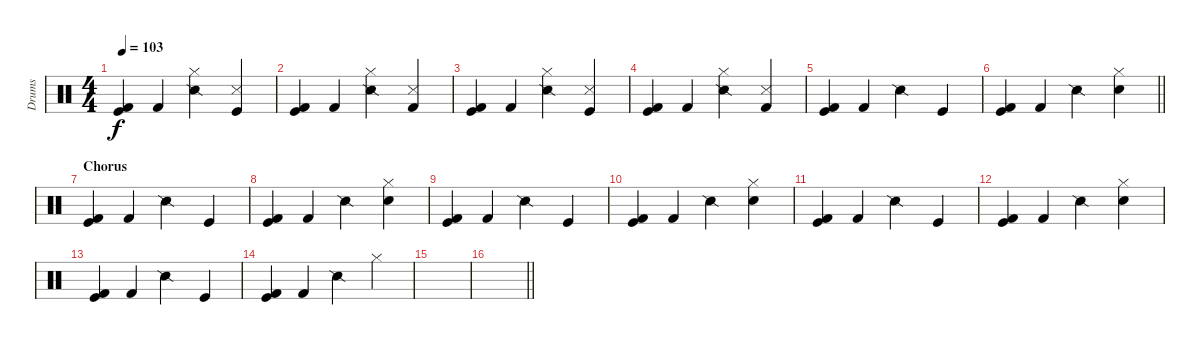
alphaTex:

\track ("Drums" "Drums") {instrument percussion}
\staff {score}
\articulation defaults
\ts (4 4)
\tempo 103
\clef neutral
\ks c
("Kick (hit)" "Kick (hit) 2").4{dy f} "Kick (hit) 2".4 ("Snare (side stick) 2" "Hi-Hat (closed)").4 ("Snare (side stick) 3" "Kick (hit)").4 |
("Kick (hit)" "Kick (hit) 2").4 "Kick (hit) 2".4 ("Snare (side stick) 2" "Hi-Hat (closed)").4 ("Snare (side stick) 3" "Kick (hit) 2").4 |
("Kick (hit)" "Kick (hit) 2").4 "Kick (hit) 2".4 ("Snare (side stick) 2" "Hi-Hat (closed)").4 ("Snare (side stick) 3" "Kick (hit)").4 |
("Kick (hit)" "Kick (hit) 2").4 "Kick (hit) 2".4 ("Snare (side stick) 2" "Hi-Hat (closed)").4 ("Snare (side stick) 3" "Kick (hit) 2").4 |
("Kick (hit)" "Kick (hit) 2").4 "Kick (hit) 2".4 "Snare (side stick) 2".4 "Kick (hit)".4 |
\barLineRight lightlight
("Kick (hit)" "Kick (hit) 2").4 "Kick (hit) 2".4 "Snare (side stick) 2".4 ("Hi-Hat (closed)" "Metronome (bell)").4 |
\section ("" "Chorus")
("Kick (hit)" "Kick (hit) 2").4 "Kick (hit) 2".4 "Snare (side stick) 2".4 "Kick (hit)".4 |
("Kick (hit)" "Kick (hit) 2").4 "Kick (hit) 2".4 "Snare (side stick) 2".4 ("Hi-Hat (closed)" "Metronome (bell)").4 |
("Kick (hit)" "Kick (hit) 2").4 "Kick (hit) 2".4 "Snare (side stick) 2".4 "Kick (hit)".4 |
("Kick (hit)" "Kick (hit) 2").4 "Kick (hit) 2".4 "Snare (side stick) 2".4 ("Hi-Hat (closed)" "Metronome (bell)").4 |
("Kick (hit)" "Kick (hit) 2").4 "Kick (hit) 2".4 "Snare (side stick) 2".4 "Kick (hit)".4 |
("Kick (hit)" "Kick (hit) 2").4 "Kick (hit) 2".4 "Snare (side stick) 2".4 ("Hi-Hat (closed)" "Metronome (bell)").4 |
("Kick (hit)" "Kick (hit) 2").4 "Kick (hit) 2".4 "Snare (side stick) 2".4 "Kick (hit)".4 |
("Kick (hit)" "Kick (hit) 2").4 "Kick (hit) 2".4 "Snare (side stick) 2".4 "Hi-Hat (closed)".4 |
|
\barLineRight lightlight
